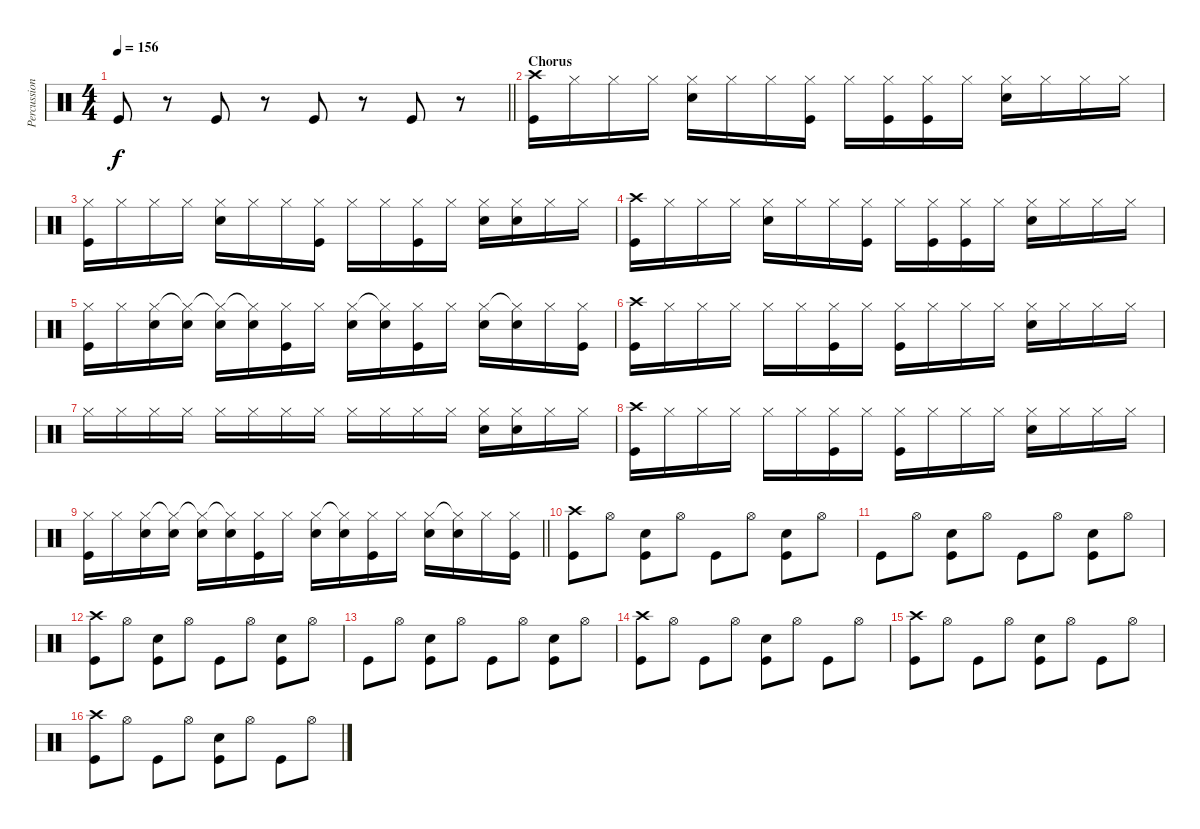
\track ("Percussion" "Percussion") {instrument percussion}
\staff {score}
\articulation defaults
\ts (4 4)
\tempo 156
\clef neutral
\barLineRight lightlight
\ks c "Kick (hit)".8{dy f}
r.8 "Kick (hit)".8 r.8 "Kick (hit)".8 r.8 "Kick (hit)".8 r.8 |
\section ("" "Chorus")
("Crash high (hit)" "Kick (hit)").16 "Hi-Hat (closed)".16 "Hi-Hat (closed)".16 "Hi-Hat (closed)".16 ("Hi-Hat (closed)" "Snare (hit) 2").16 "Hi-Hat (closed)".16 "Hi-Hat (closed)".16 ("Hi-Hat (closed)" "Kick (hit)").16 "Hi-Hat (closed)".16 ("Hi-Hat (closed)" "Kick (hit)").16 ("Hi-Hat (closed)" "Kick (hit)").16 "Hi-Hat (closed)".16 ("Hi-Hat (closed)" "Snare (hit) 2").16 "Hi-Hat (closed)".16 "Hi-Hat (closed)".16 "Hi-Hat (closed)".16 |
("Hi-Hat (closed)" "Kick (hit)").16 "Hi-Hat (closed)".16 "Hi-Hat (closed)".16 "Hi-Hat (closed)".16 ("Hi-Hat (closed)" "Snare (hit) 2").16 "Hi-Hat (closed)".16 "Hi-Hat (closed)".16 ("Hi-Hat (closed)" "Kick (hit)").16 "Hi-Hat (closed)".16 "Hi-Hat (closed)".16 ("Hi-Hat (closed)" "Kick (hit)").16 "Hi-Hat (closed)".16 ("Hi-Hat (closed)" "Snare (hit) 2").16 ("Hi-Hat (closed)" "Snare (hit) 2").16 "Hi-Hat (closed)".16 "Hi-Hat (closed)".16 |
("Crash high (hit)" "Kick (hit)").16 "Hi-Hat (closed)".16 "Hi-Hat (closed)".16 "Hi-Hat (closed)".16 ("Hi-Hat (closed)" "Snare (hit) 2").16 "Hi-Hat (closed)".16 "Hi-Hat (closed)".16 ("Hi-Hat (closed)" "Kick (hit)").16 "Hi-Hat (closed)".16 ("Hi-Hat (closed)" "Kick (hit)").16 ("Hi-Hat (closed)" "Kick (hit)").16 "Hi-Hat (closed)".16 ("Hi-Hat (closed)" "Snare (hit) 2").16 "Hi-Hat (closed)".16 "Hi-Hat (closed)".16 "Hi-Hat (closed)".16 |
("Hi-Hat (closed)" "Kick (hit)").16 "Hi-Hat (closed)".16 ("Hi-Hat (closed)" "Snare (hit) 2").16 ("Hi-Hat (closed)"{t} "Snare (hit) 2").16 ("Hi-Hat (closed)"{t} "Snare (hit) 2").16 ("Hi-Hat (closed)"{t} "Snare (hit) 2").16 ("Hi-Hat (closed)" "Kick (hit)").16 "Hi-Hat (closed)".16 ("Hi-Hat (closed)" "Snare (hit) 2").16 ("Hi-Hat (closed)"{t} "Snare (hit) 2").16 ("Hi-Hat (closed)" "Kick (hit)").16 "Hi-Hat (closed)".16 ("Hi-Hat (closed)" "Snare (hit) 2").16 ("Hi-Hat (closed)"{t} "Snare (hit) 2").16 "Hi-Hat (closed)".16 ("Hi-Hat (closed)" "Kick (hit)").16 |
("Crash high (hit)" "Kick (hit)").16 "Hi-Hat (closed)".16 "Hi-Hat (closed)".16 "Hi-Hat (closed)".16 "Hi-Hat (closed)".16 "Hi-Hat (closed)".16 ("Hi-Hat (closed)" "Kick (hit)").16 "Hi-Hat (closed)".16 ("Hi-Hat (closed)" "Kick (hit)").16 "Hi-Hat (closed)".16 "Hi-Hat (closed)".16 "Hi-Hat (closed)".16 ("Hi-Hat (closed)" "Snare (hit) 2").16 "Hi-Hat (closed)".16 "Hi-Hat (closed)".16 "Hi-Hat (closed)".16 |
"Hi-Hat (closed)".16 "Hi-Hat (closed)".16 "Hi-Hat (closed)".16 "Hi-Hat (closed)".16 "Hi-Hat (closed)".16 "Hi-Hat (closed)".16 "Hi-Hat (closed)".16 "Hi-Hat (closed)".16 "Hi-Hat (closed)".16 "Hi-Hat (closed)".16 "Hi-Hat (closed)".16 "Hi-Hat (closed)".16 ("Hi-Hat (closed)" "Snare (hit) 2").16 ("Hi-Hat (closed)" "Snare (hit) 2").16 "Hi-Hat (closed)".16 "Hi-Hat (closed)".16 |
("Crash high (hit)" "Kick (hit)").16 "Hi-Hat (closed)".16 "Hi-Hat (closed)".16 "Hi-Hat (closed)".16 "Hi-Hat (closed)".16 "Hi-Hat (closed)".16 ("Hi-Hat (closed)" "Kick (hit)").16 "Hi-Hat (closed)".16 ("Hi-Hat (closed)" "Kick (hit)").16 "Hi-Hat (closed)".16 "Hi-Hat (closed)".16 "Hi-Hat (closed)".16 ("Hi-Hat (closed)" "Snare (hit) 2").16 "Hi-Hat (closed)".16 "Hi-Hat (closed)".16 "Hi-Hat (closed)".16 |
\barLineRight lightlight
("Hi-Hat (closed)" "Kick (hit)").16 "Hi-Hat (closed)".16 ("Hi-Hat (closed)" "Snare (hit) 2").16 ("Hi-Hat (closed)"{t} "Snare (hit) 2").16 ("Hi-Hat (closed)"{t} "Snare (hit) 2").16 ("Hi-Hat (closed)"{t} "Snare (hit) 2").16 ("Hi-Hat (closed)" "Kick (hit)").16 "Hi-Hat (closed)".16 ("Hi-Hat (closed)" "Snare (hit) 2").16 ("Hi-Hat (closed)"{t} "Snare (hit) 2").16 ("Hi-Hat (closed)" "Kick (hit)").16 "Hi-Hat (closed)".16 ("Hi-Hat (closed)" "Snare (hit) 2").16 ("Hi-Hat (closed)"{t} "Snare (hit) 2").16 "Hi-Hat (closed)".16 ("Hi-Hat (closed)" "Kick (hit)").16 |
("Crash high (hit)" "Kick (hit)").8 "Hi-Hat (open)".8 ("Snare (hit) 2" "Kick (hit)").8 "Hi-Hat (open)".8 "Kick (hit)".8 "Hi-Hat (open)".8 ("Snare (hit) 2" "Kick (hit)").8 "Hi-Hat (open)".8 |
"Kick (hit)".8 "Hi-Hat (open)".8 ("Snare (hit) 2" "Kick (hit)").8 "Hi-Hat (open)".8 "Kick (hit)".8 "Hi-Hat (open)".8 ("Snare (hit) 2" "Kick (hit)").8 "Hi-Hat (open)".8 |
("Crash high (hit)" "Kick (hit)").8 "Hi-Hat (open)".8 ("Snare (hit) 2" "Kick (hit)").8 "Hi-Hat (open)".8 "Kick (hit)".8 "Hi-Hat (open)".8 ("Snare (hit) 2" "Kick (hit)").8 "Hi-Hat (open)".8 |
"Kick (hit)".8 "Hi-Hat (open)".8 ("Snare (hit) 2" "Kick (hit)").8 "Hi-Hat (open)".8 "Kick (hit)".8 "Hi-Hat (open)".8 ("Snare (hit) 2" "Kick (hit)").8 "Hi-Hat (open)".8 |
("Crash high (hit)" "Kick (hit)").8 "Hi-Hat (open)".8 "Kick (hit)".8 "Hi-Hat (open)".8 ("Snare (hit) 2" "Kick (hit)").8 "Hi-Hat (open)".8 "Kick (hit)".8 "Hi-Hat (open)".8 |
("Crash high (hit)" "Kick (hit)").8 "Hi-Hat (open)".8 "Kick (hit)".8 "Hi-Hat (open)".8 ("Snare (hit) 2" "Kick (hit)").8 "Hi-Hat (open)".8 "Kick (hit)".8 "Hi-Hat (open)".8 |
("Crash high (hit)" "Kick (hit)").8 "Hi-Hat (open)".8 "Kick (hit)".8 "Hi-Hat (open)".8 ("Snare (hit) 2" "Kick (hit)").8 "Hi-Hat (open)".8 "Kick (hit)".8 "Hi-Hat (open)".8
